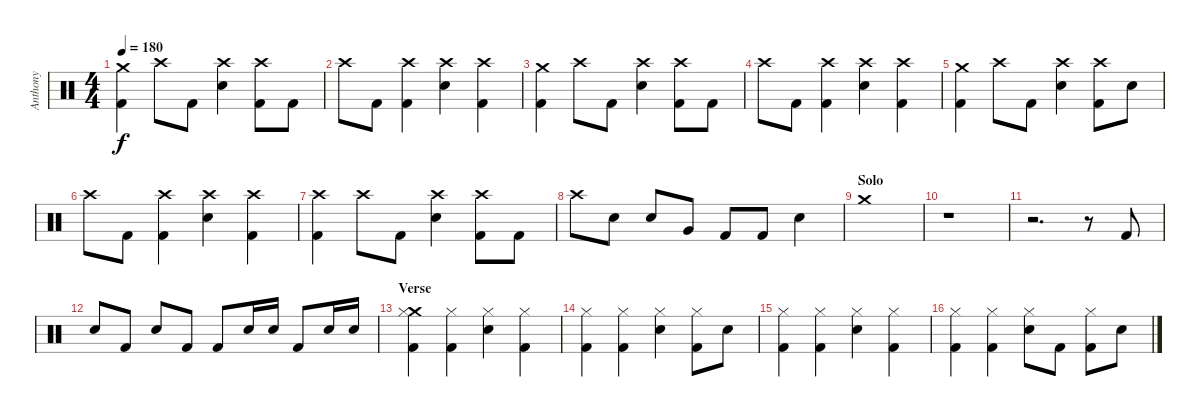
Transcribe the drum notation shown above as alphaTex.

\track ("Anthony" "Anthony") {instrument percussion}
\staff {score}
\articulation defaults
\ts (4 4)
\tempo 180
\clef neutral
\ks c
("Crash medium (hit)" "Kick (hit) 2").4{dy f} "Crash high (hit)".8 "Kick (hit) 2".8 ("Crash high (hit)" "Electric Snare (hit)").4 ("Crash high (hit)" "Kick (hit) 2").8 "Kick (hit) 2".8 |
"Crash high (hit)".8 "Kick (hit) 2".8 ("Crash high (hit)" "Kick (hit) 2").4 ("Crash high (hit)" "Electric Snare (hit)").4 ("Crash high (hit)" "Kick (hit) 2").4 |
("Crash medium (hit)" "Kick (hit) 2").4 "Crash high (hit)".8 "Kick (hit) 2".8 ("Crash high (hit)" "Electric Snare (hit)").4 ("Crash high (hit)" "Kick (hit) 2").8 "Kick (hit) 2".8 |
"Crash high (hit)".8 "Kick (hit) 2".8 ("Crash high (hit)" "Kick (hit) 2").4 ("Crash high (hit)" "Electric Snare (hit)").4 ("Crash high (hit)" "Kick (hit) 2").4 |
("Crash medium (hit)" "Kick (hit) 2").4 "Crash high (hit)".8 "Kick (hit) 2".8 ("Crash high (hit)" "Electric Snare (hit)").4 ("Crash high (hit)" "Kick (hit) 2").8 "Electric Snare (hit)".8 |
"Crash high (hit)".8 "Kick (hit) 2".8 ("Crash high (hit)" "Kick (hit) 2").4 ("Crash high (hit)" "Electric Snare (hit)").4 ("Crash high (hit)" "Kick (hit) 2").4 |
("Crash high (hit)" "Kick (hit) 2").4 "Crash high (hit)".8 "Kick (hit) 2".8 ("Crash high (hit)" "Electric Snare (hit)").4 ("Crash high (hit)" "Kick (hit) 2").8 "Kick (hit) 2".8 |
"Crash high (hit)".8 "Electric Snare (hit)".8 "Electric Snare (hit)".8 "Very Low Tom (hit)".8 "Kick (hit) 2".8 "Kick (hit) 2".8 "Electric Snare (hit)".4 |
\section ("" "Solo")
"Crash medium (hit)".1 |
r.1 |
r.2{d} r.8 "Kick (hit) 2".8 |
"Electric Snare (hit)".8 "Kick (hit) 2".8 "Electric Snare (hit)".8 "Kick (hit) 2".8 "Kick (hit) 2".8 "Electric Snare (hit)".16 "Electric Snare (hit)".16 "Kick (hit) 2".8 "Electric Snare (hit)".16 "Electric Snare (hit)".16 |
\section ("" "Verse")
("Crash medium (hit)" "Hi-Hat (closed)" "Kick (hit) 2").4 ("Hi-Hat (closed)" "Kick (hit) 2").4 ("Hi-Hat (closed)" "Electric Snare (hit)").4 ("Hi-Hat (closed)" "Kick (hit) 2").4 |
("Hi-Hat (closed)" "Kick (hit) 2").4 ("Hi-Hat (closed)" "Kick (hit) 2").4 ("Hi-Hat (closed)" "Electric Snare (hit)").4 ("Hi-Hat (closed)" "Kick (hit) 2").8 "Electric Snare (hit)".8 |
("Hi-Hat (closed)" "Kick (hit) 2").4 ("Hi-Hat (closed)" "Kick (hit) 2").4 ("Hi-Hat (closed)" "Electric Snare (hit)").4 ("Hi-Hat (closed)" "Kick (hit) 2").4 |
("Hi-Hat (closed)" "Kick (hit) 2").4 ("Hi-Hat (closed)" "Kick (hit) 2").4 ("Hi-Hat (closed)" "Electric Snare (hit)").8 "Kick (hit) 2".8 ("Hi-Hat (closed)" "Kick (hit) 2").8 "Electric Snare (hit)".8
